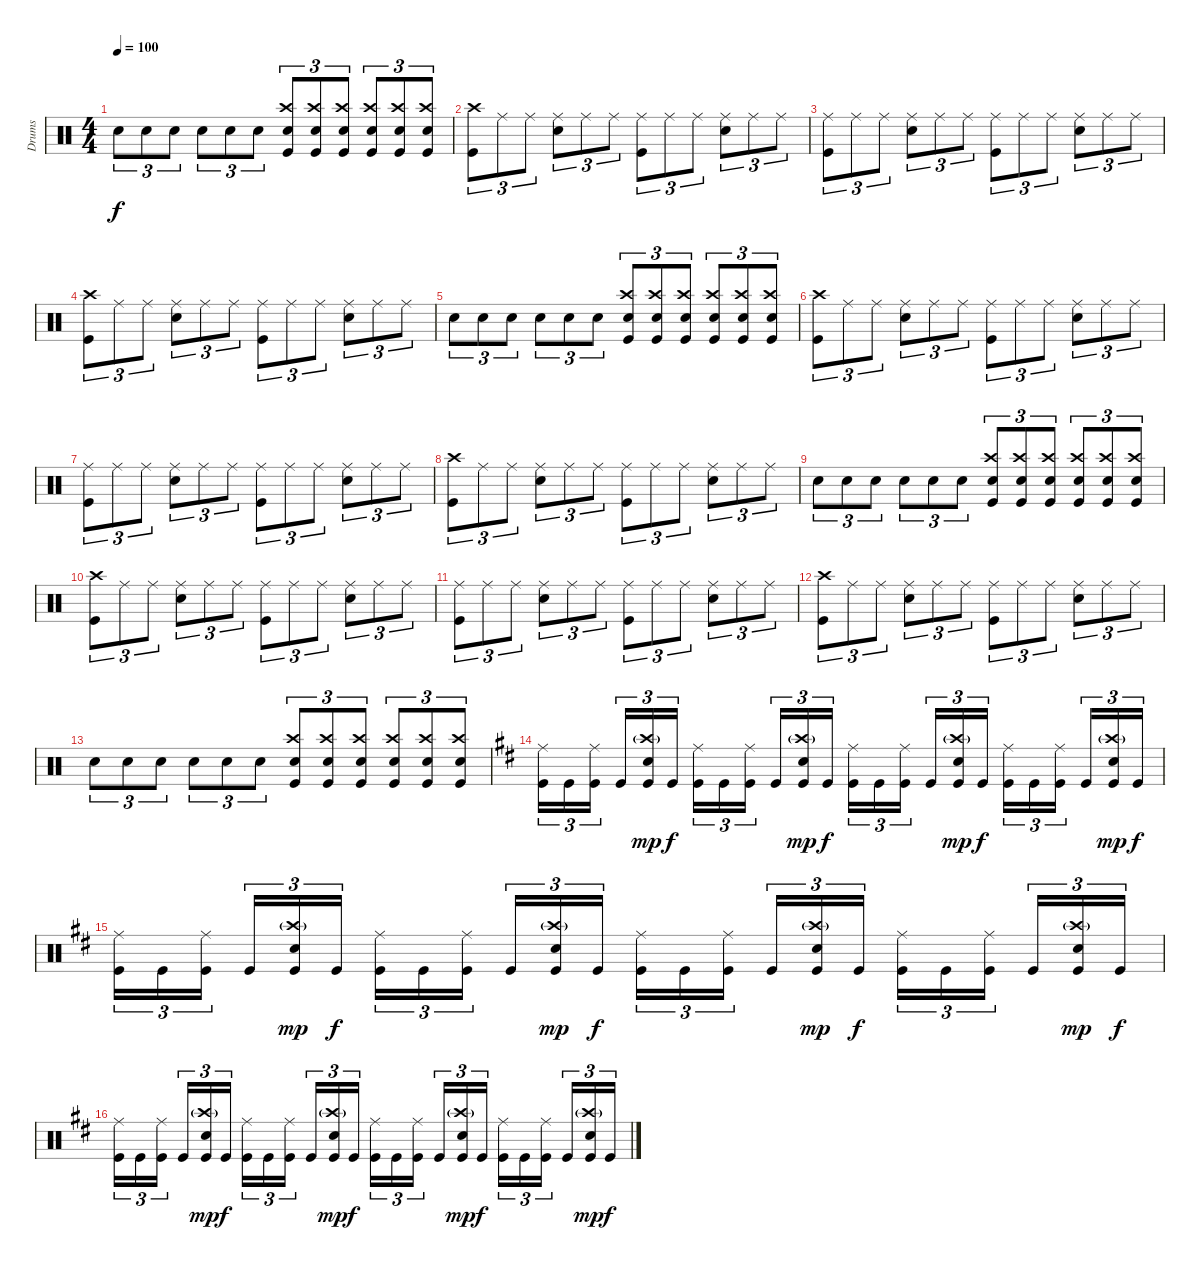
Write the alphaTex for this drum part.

\track ("Drums" "Drums") {instrument percussion}
\staff {score}
\articulation defaults
\ts (4 4)
\tempo 100
\clef neutral
\ks c "Snare (hit) 2".8{tu (3 2) dy f} "Snare (hit) 2".8{tu (3 2)} "Snare (hit) 2".8{tu (3 2)} "Snare (hit) 2".8{tu (3 2)} "Snare (hit) 2".8{tu (3 2)} "Snare (hit) 2".8{tu (3 2)}
("Crash high (hit)" "Snare (hit) 2" "Kick (hit)").8{tu (3 2)} ("Crash high (hit)" "Snare (hit) 2" "Kick (hit)").8{tu (3 2)} ("Crash high (hit)" "Snare (hit) 2" "Kick (hit)").8{tu (3 2)} ("Crash high (hit)" "Snare (hit) 2" "Kick (hit)").8{tu (3 2)} ("Crash high (hit)" "Snare (hit) 2" "Kick (hit)").8{tu (3 2)} ("Crash high (hit)" "Snare (hit) 2" "Kick (hit)").8{tu (3 2)} |
("Crash high (hit)" "Kick (hit)").8{tu (3 2)} "Ride (middle)".8{tu (3 2)} "Ride (middle)".8{tu (3 2)} ("Ride (middle)" "Snare (hit) 2").8{tu (3 2)} "Ride (middle)".8{tu (3 2)} "Ride (middle)".8{tu (3 2)} ("Ride (middle)" "Kick (hit)").8{tu (3 2)} "Ride (middle)".8{tu (3 2)} "Ride (middle)".8{tu (3 2)} ("Ride (middle)" "Snare (hit) 2").8{tu (3 2)} "Ride (middle)".8{tu (3 2)} "Ride (middle)".8{tu (3 2)} |
("Ride (middle)" "Kick (hit)").8{tu (3 2)} "Ride (middle)".8{tu (3 2)} "Ride (middle)".8{tu (3 2)} ("Ride (middle)" "Snare (hit) 2").8{tu (3 2)} "Ride (middle)".8{tu (3 2)} "Ride (middle)".8{tu (3 2)} ("Ride (middle)" "Kick (hit)").8{tu (3 2)} "Ride (middle)".8{tu (3 2)} "Ride (middle)".8{tu (3 2)} ("Ride (middle)" "Snare (hit) 2").8{tu (3 2)} "Ride (middle)".8{tu (3 2)} "Ride (middle)".8{tu (3 2)} |
("Crash high (hit)" "Kick (hit)").8{tu (3 2)} "Ride (middle)".8{tu (3 2)} "Ride (middle)".8{tu (3 2)} ("Ride (middle)" "Snare (hit) 2").8{tu (3 2)} "Ride (middle)".8{tu (3 2)} "Ride (middle)".8{tu (3 2)} ("Ride (middle)" "Kick (hit)").8{tu (3 2)} "Ride (middle)".8{tu (3 2)} "Ride (middle)".8{tu (3 2)} ("Ride (middle)" "Snare (hit) 2").8{tu (3 2)} "Ride (middle)".8{tu (3 2)} "Ride (middle)".8{tu (3 2)} |
"Snare (hit) 2".8{tu (3 2)} "Snare (hit) 2".8{tu (3 2)} "Snare (hit) 2".8{tu (3 2)} "Snare (hit) 2".8{tu (3 2)} "Snare (hit) 2".8{tu (3 2)} "Snare (hit) 2".8{tu (3 2)} ("Crash high (hit)" "Snare (hit) 2" "Kick (hit)").8{tu (3 2)} ("Crash high (hit)" "Snare (hit) 2" "Kick (hit)").8{tu (3 2)} ("Crash high (hit)" "Snare (hit) 2" "Kick (hit)").8{tu (3 2)} ("Crash high (hit)" "Snare (hit) 2" "Kick (hit)").8{tu (3 2)} ("Crash high (hit)" "Snare (hit) 2" "Kick (hit)").8{tu (3 2)} ("Crash high (hit)" "Snare (hit) 2" "Kick (hit)").8{tu (3 2)} |
("Crash high (hit)" "Kick (hit)").8{tu (3 2)} "Ride (middle)".8{tu (3 2)} "Ride (middle)".8{tu (3 2)} ("Ride (middle)" "Snare (hit) 2").8{tu (3 2)} "Ride (middle)".8{tu (3 2)} "Ride (middle)".8{tu (3 2)} ("Ride (middle)" "Kick (hit)").8{tu (3 2)} "Ride (middle)".8{tu (3 2)} "Ride (middle)".8{tu (3 2)} ("Ride (middle)" "Snare (hit) 2").8{tu (3 2)} "Ride (middle)".8{tu (3 2)} "Ride (middle)".8{tu (3 2)} |
("Ride (middle)" "Kick (hit)").8{tu (3 2)} "Ride (middle)".8{tu (3 2)} "Ride (middle)".8{tu (3 2)} ("Ride (middle)" "Snare (hit) 2").8{tu (3 2)} "Ride (middle)".8{tu (3 2)} "Ride (middle)".8{tu (3 2)} ("Ride (middle)" "Kick (hit)").8{tu (3 2)} "Ride (middle)".8{tu (3 2)} "Ride (middle)".8{tu (3 2)} ("Ride (middle)" "Snare (hit) 2").8{tu (3 2)} "Ride (middle)".8{tu (3 2)} "Ride (middle)".8{tu (3 2)} |
("Crash high (hit)" "Kick (hit)").8{tu (3 2)} "Ride (middle)".8{tu (3 2)} "Ride (middle)".8{tu (3 2)} ("Ride (middle)" "Snare (hit) 2").8{tu (3 2)} "Ride (middle)".8{tu (3 2)} "Ride (middle)".8{tu (3 2)} ("Ride (middle)" "Kick (hit)").8{tu (3 2)} "Ride (middle)".8{tu (3 2)} "Ride (middle)".8{tu (3 2)} ("Ride (middle)" "Snare (hit) 2").8{tu (3 2)} "Ride (middle)".8{tu (3 2)} "Ride (middle)".8{tu (3 2)} |
"Snare (hit) 2".8{tu (3 2)} "Snare (hit) 2".8{tu (3 2)} "Snare (hit) 2".8{tu (3 2)} "Snare (hit) 2".8{tu (3 2)} "Snare (hit) 2".8{tu (3 2)} "Snare (hit) 2".8{tu (3 2)} ("Crash high (hit)" "Snare (hit) 2" "Kick (hit)").8{tu (3 2)} ("Crash high (hit)" "Snare (hit) 2" "Kick (hit)").8{tu (3 2)} ("Crash high (hit)" "Snare (hit) 2" "Kick (hit)").8{tu (3 2)} ("Crash high (hit)" "Snare (hit) 2" "Kick (hit)").8{tu (3 2)} ("Crash high (hit)" "Snare (hit) 2" "Kick (hit)").8{tu (3 2)} ("Crash high (hit)" "Snare (hit) 2" "Kick (hit)").8{tu (3 2)} |
("Crash high (hit)" "Kick (hit)").8{tu (3 2)} "Ride (middle)".8{tu (3 2)} "Ride (middle)".8{tu (3 2)} ("Ride (middle)" "Snare (hit) 2").8{tu (3 2)} "Ride (middle)".8{tu (3 2)} "Ride (middle)".8{tu (3 2)} ("Ride (middle)" "Kick (hit)").8{tu (3 2)} "Ride (middle)".8{tu (3 2)} "Ride (middle)".8{tu (3 2)} ("Ride (middle)" "Snare (hit) 2").8{tu (3 2)} "Ride (middle)".8{tu (3 2)} "Ride (middle)".8{tu (3 2)} |
("Ride (middle)" "Kick (hit)").8{tu (3 2)} "Ride (middle)".8{tu (3 2)} "Ride (middle)".8{tu (3 2)} ("Ride (middle)" "Snare (hit) 2").8{tu (3 2)} "Ride (middle)".8{tu (3 2)} "Ride (middle)".8{tu (3 2)} ("Ride (middle)" "Kick (hit)").8{tu (3 2)} "Ride (middle)".8{tu (3 2)} "Ride (middle)".8{tu (3 2)} ("Ride (middle)" "Snare (hit) 2").8{tu (3 2)} "Ride (middle)".8{tu (3 2)} "Ride (middle)".8{tu (3 2)} |
("Crash high (hit)" "Kick (hit)").8{tu (3 2)} "Ride (middle)".8{tu (3 2)} "Ride (middle)".8{tu (3 2)} ("Ride (middle)" "Snare (hit) 2").8{tu (3 2)} "Ride (middle)".8{tu (3 2)} "Ride (middle)".8{tu (3 2)} ("Ride (middle)" "Kick (hit)").8{tu (3 2)} "Ride (middle)".8{tu (3 2)} "Ride (middle)".8{tu (3 2)} ("Ride (middle)" "Snare (hit) 2").8{tu (3 2)} "Ride (middle)".8{tu (3 2)} "Ride (middle)".8{tu (3 2)} |
"Snare (hit) 2".8{tu (3 2)} "Snare (hit) 2".8{tu (3 2)} "Snare (hit) 2".8{tu (3 2)} "Snare (hit) 2".8{tu (3 2)} "Snare (hit) 2".8{tu (3 2)} "Snare (hit) 2".8{tu (3 2)} ("Crash high (hit)" "Snare (hit) 2" "Kick (hit)").8{tu (3 2)} ("Crash high (hit)" "Snare (hit) 2" "Kick (hit)").8{tu (3 2)} ("Crash high (hit)" "Snare (hit) 2" "Kick (hit)").8{tu (3 2)} ("Crash high (hit)" "Snare (hit) 2" "Kick (hit)").8{tu (3 2)} ("Crash high (hit)" "Snare (hit) 2" "Kick (hit)").8{tu (3 2)} ("Crash high (hit)" "Snare (hit) 2" "Kick (hit)").8{tu (3 2)} |
\ks d
("Ride (middle)" "Kick (hit)").16{tu (3 2)} "Kick (hit)".16{tu (3 2)} ("Ride (middle)" "Kick (hit)").16{tu (3 2)} "Kick (hit)".16{tu (3 2)} ("Crash high (hit)"{g} "Snare (hit) 2" "Kick (hit)").16{tu (3 2) dy mp} "Kick (hit)".16{tu (3 2) dy f} ("Ride (middle)" "Kick (hit)").16{tu (3 2)} "Kick (hit)".16{tu (3 2)} ("Ride (middle)" "Kick (hit)").16{tu (3 2)} "Kick (hit)".16{tu (3 2)} ("Crash high (hit)"{g} "Snare (hit) 2" "Kick (hit)").16{tu (3 2) dy mp} "Kick (hit)".16{tu (3 2) dy f} ("Ride (middle)" "Kick (hit)").16{tu (3 2)} "Kick (hit)".16{tu (3 2)} ("Ride (middle)" "Kick (hit)").16{tu (3 2)} "Kick (hit)".16{tu (3 2)} ("Crash high (hit)"{g} "Snare (hit) 2" "Kick (hit)").16{tu (3 2) dy mp} "Kick (hit)".16{tu (3 2) dy f} ("Ride (middle)" "Kick (hit)").16{tu (3 2)} "Kick (hit)".16{tu (3 2)} ("Ride (middle)" "Kick (hit)").16{tu (3 2)} "Kick (hit)".16{tu (3 2)} ("Crash high (hit)"{g} "Snare (hit) 2" "Kick (hit)").16{tu (3 2) dy mp} "Kick (hit)".16{tu (3 2) dy f} |
("Ride (middle)" "Kick (hit)").16{tu (3 2)} "Kick (hit)".16{tu (3 2)} ("Ride (middle)" "Kick (hit)").16{tu (3 2)} "Kick (hit)".16{tu (3 2)} ("Crash high (hit)"{g} "Snare (hit) 2" "Kick (hit)").16{tu (3 2) dy mp} "Kick (hit)".16{tu (3 2) dy f} ("Ride (middle)" "Kick (hit)").16{tu (3 2)} "Kick (hit)".16{tu (3 2)} ("Ride (middle)" "Kick (hit)").16{tu (3 2)} "Kick (hit)".16{tu (3 2)} ("Crash high (hit)"{g} "Snare (hit) 2" "Kick (hit)").16{tu (3 2) dy mp} "Kick (hit)".16{tu (3 2) dy f} ("Ride (middle)" "Kick (hit)").16{tu (3 2)} "Kick (hit)".16{tu (3 2)} ("Ride (middle)" "Kick (hit)").16{tu (3 2)} "Kick (hit)".16{tu (3 2)} ("Crash high (hit)"{g} "Snare (hit) 2" "Kick (hit)").16{tu (3 2) dy mp} "Kick (hit)".16{tu (3 2) dy f} ("Ride (middle)" "Kick (hit)").16{tu (3 2)} "Kick (hit)".16{tu (3 2)} ("Ride (middle)" "Kick (hit)").16{tu (3 2)} "Kick (hit)".16{tu (3 2)} ("Crash high (hit)"{g} "Snare (hit) 2" "Kick (hit)").16{tu (3 2) dy mp} "Kick (hit)".16{tu (3 2) dy f} |
("Ride (middle)" "Kick (hit)").16{tu (3 2)} "Kick (hit)".16{tu (3 2)} ("Ride (middle)" "Kick (hit)").16{tu (3 2)} "Kick (hit)".16{tu (3 2)} ("Crash high (hit)"{g} "Snare (hit) 2" "Kick (hit)").16{tu (3 2) dy mp} "Kick (hit)".16{tu (3 2) dy f} ("Ride (middle)" "Kick (hit)").16{tu (3 2)} "Kick (hit)".16{tu (3 2)} ("Ride (middle)" "Kick (hit)").16{tu (3 2)} "Kick (hit)".16{tu (3 2)} ("Crash high (hit)"{g} "Snare (hit) 2" "Kick (hit)").16{tu (3 2) dy mp} "Kick (hit)".16{tu (3 2) dy f} ("Ride (middle)" "Kick (hit)").16{tu (3 2)} "Kick (hit)".16{tu (3 2)} ("Ride (middle)" "Kick (hit)").16{tu (3 2)} "Kick (hit)".16{tu (3 2)} ("Crash high (hit)"{g} "Snare (hit) 2" "Kick (hit)").16{tu (3 2) dy mp} "Kick (hit)".16{tu (3 2) dy f} ("Ride (middle)" "Kick (hit)").16{tu (3 2)} "Kick (hit)".16{tu (3 2)} ("Ride (middle)" "Kick (hit)").16{tu (3 2)} "Kick (hit)".16{tu (3 2)} ("Crash high (hit)"{g} "Snare (hit) 2" "Kick (hit)").16{tu (3 2) dy mp} "Kick (hit)".16{tu (3 2) dy f}
